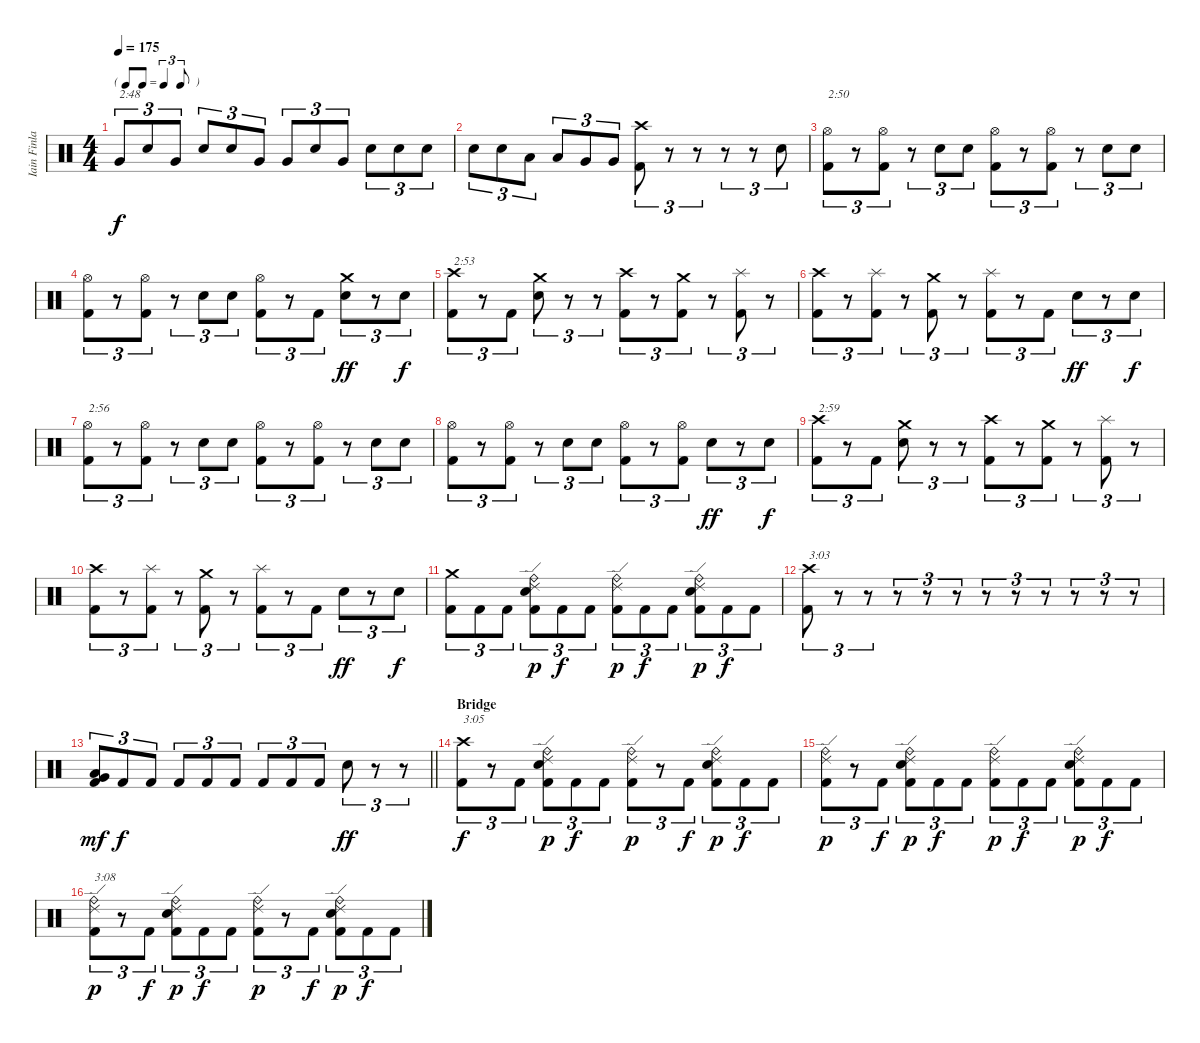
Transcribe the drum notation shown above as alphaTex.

\track ("Iain Finlay" "Iain Finla") {instrument percussion}
\staff {score}
\articulation defaults
\ts (4 4)
\tf triplet8th
\tempo 175
\clef neutral
\ks c "Very Low Tom (hit)".8{tu (3 2) txt "2:48" dy f} "Electric Snare (hit)".8{tu (3 2)} "Very Low Tom (hit)".8{tu (3 2)} "Electric Snare (hit)".8{tu (3 2)} "Electric Snare (hit)".8{tu (3 2)} "Very Low Tom (hit)".8{tu (3 2)} "Very Low Tom (hit)".8{tu (3 2)} "Electric Snare (hit)".8{tu (3 2)} "Very Low Tom (hit)".8{tu (3 2)} "Electric Snare (hit)".8{tu (3 2)} "Electric Snare (hit)".8{tu (3 2)} "Electric Snare (hit)".8{tu (3 2)}
|
"Electric Snare (hit)".8{tu (3 2)} "Electric Snare (hit)".8{tu (3 2)} "Low Tom (hit)".8{tu (3 2)} "Low Tom (hit)".8{tu (3 2)} "Very Low Tom (hit)".8{tu (3 2)} "Very Low Tom (hit)".8{tu (3 2)} ("Crash high (hit)" "Kick (hit) 2").8{tu (3 2)} r.8{tu (3 2)} r.8{tu (3 2)} r.8{tu (3 2)} r.8{tu (3 2)} "Electric Snare (hit)".8{tu (3 2)} |
("Hi-Hat (open)" "Kick (hit) 2").8{tu (3 2) txt "2:50"} r.8{tu (3 2)} ("Hi-Hat (open)" "Kick (hit) 2").8{tu (3 2)} r.8{tu (3 2)} "Electric Snare (hit)".8{tu (3 2)} "Electric Snare (hit)".8{tu (3 2)} ("Hi-Hat (open)" "Kick (hit) 2").8{tu (3 2)} r.8{tu (3 2)} ("Hi-Hat (open)" "Kick (hit) 2").8{tu (3 2)} r.8{tu (3 2)} "Electric Snare (hit)".8{tu (3 2)} "Electric Snare (hit)".8{tu (3 2)} |
("Hi-Hat (open)" "Kick (hit) 2").8{tu (3 2)} r.8{tu (3 2)} ("Hi-Hat (open)" "Kick (hit) 2").8{tu (3 2)} r.8{tu (3 2)} "Electric Snare (hit)".8{tu (3 2)} "Electric Snare (hit)".8{tu (3 2)} ("Hi-Hat (open)" "Kick (hit) 2").8{tu (3 2)} r.8{tu (3 2)} "Kick (hit) 2".8{tu (3 2)} ("Crash medium (hit)" "Electric Snare (hit)").8{tu (3 2) dy ff} r.8{tu (3 2)} "Electric Snare (hit)".8{tu (3 2) dy f} |
("Crash high (hit)" "Kick (hit) 2").8{tu (3 2) txt "2:53"} r.8{tu (3 2)} "Kick (hit) 2".8{tu (3 2)} ("Crash medium (hit)" "Electric Snare (hit)").8{tu (3 2)} r.8{tu (3 2)} r.8{tu (3 2)} ("Crash high (hit)" "Kick (hit) 2").8{tu (3 2)} r.8{tu (3 2)} ("Crash medium (hit)" "Kick (hit) 2").8{tu (3 2)} r.8{tu (3 2)} ("Splash (hit)" "Kick (hit) 2").8{tu (3 2)} r.8{tu (3 2)} |
("Crash high (hit)" "Kick (hit) 2").8{tu (3 2)} r.8{tu (3 2)} ("Splash (hit)" "Kick (hit) 2").8{tu (3 2)} r.8{tu (3 2)} ("Crash medium (hit)" "Kick (hit) 2").8{tu (3 2)} r.8{tu (3 2)} ("Splash (hit)" "Kick (hit) 2").8{tu (3 2)} r.8{tu (3 2)} "Kick (hit) 2".8{tu (3 2)} "Electric Snare (hit)".8{tu (3 2) dy ff} r.8{tu (3 2)} "Electric Snare (hit)".8{tu (3 2) dy f} |
("Hi-Hat (open)" "Kick (hit) 2").8{tu (3 2) txt "2:56"} r.8{tu (3 2)} ("Hi-Hat (open)" "Kick (hit) 2").8{tu (3 2)} r.8{tu (3 2)} "Electric Snare (hit)".8{tu (3 2)} "Electric Snare (hit)".8{tu (3 2)} ("Hi-Hat (open)" "Kick (hit) 2").8{tu (3 2)} r.8{tu (3 2)} ("Hi-Hat (open)" "Kick (hit) 2").8{tu (3 2)} r.8{tu (3 2)} "Electric Snare (hit)".8{tu (3 2)} "Electric Snare (hit)".8{tu (3 2)} |
("Hi-Hat (open)" "Kick (hit) 2").8{tu (3 2)} r.8{tu (3 2)} ("Hi-Hat (open)" "Kick (hit) 2").8{tu (3 2)} r.8{tu (3 2)} "Electric Snare (hit)".8{tu (3 2)} "Electric Snare (hit)".8{tu (3 2)} ("Hi-Hat (open)" "Kick (hit) 2").8{tu (3 2)} r.8{tu (3 2)} ("Hi-Hat (open)" "Kick (hit) 2").8{tu (3 2)} "Electric Snare (hit)".8{tu (3 2) dy ff} r.8{tu (3 2)} "Electric Snare (hit)".8{tu (3 2) dy f} |
("Crash high (hit)" "Kick (hit) 2").8{tu (3 2) txt "2:59"} r.8{tu (3 2)} "Kick (hit) 2".8{tu (3 2)} ("Crash medium (hit)" "Electric Snare (hit)").8{tu (3 2)} r.8{tu (3 2)} r.8{tu (3 2)} ("Crash high (hit)" "Kick (hit) 2").8{tu (3 2)} r.8{tu (3 2)} ("Crash medium (hit)" "Kick (hit) 2").8{tu (3 2)} r.8{tu (3 2)} ("Splash (hit)" "Kick (hit) 2").8{tu (3 2)} r.8{tu (3 2)} |
("Crash high (hit)" "Kick (hit) 2").8{tu (3 2)} r.8{tu (3 2)} ("Splash (hit)" "Kick (hit) 2").8{tu (3 2)} r.8{tu (3 2)} ("Crash medium (hit)" "Kick (hit) 2").8{tu (3 2)} r.8{tu (3 2)} ("Splash (hit)" "Kick (hit) 2").8{tu (3 2)} r.8{tu (3 2)} "Kick (hit) 2".8{tu (3 2)} "Electric Snare (hit)".8{tu (3 2) dy ff} r.8{tu (3 2)} "Electric Snare (hit)".8{tu (3 2) dy f} |
("Crash medium (hit)" "Kick (hit) 2").8{tu (3 2)} "Kick (hit) 2".8{tu (3 2)} "Kick (hit) 2".8{tu (3 2)} ("Ride (edge) 2" "Ride (bell)" "Electric Snare (hit)" "Kick (hit) 2").8{tu (3 2) dy p} "Kick (hit) 2".8{tu (3 2) dy f} "Kick (hit) 2".8{tu (3 2)} ("Ride (edge) 2" "Ride (bell)" "Kick (hit) 2").8{tu (3 2) dy p} "Kick (hit) 2".8{tu (3 2) dy f} "Kick (hit) 2".8{tu (3 2)} ("Ride (edge) 2" "Ride (bell)" "Electric Snare (hit)" "Kick (hit) 2").8{tu (3 2) dy p} "Kick (hit) 2".8{tu (3 2) dy f} "Kick (hit) 2".8{tu (3 2)} |
("Crash high (hit)" "Kick (hit) 2").8{tu (3 2) txt "3:03"} r.8{tu (3 2)} r.8{tu (3 2)} r.8{tu (3 2)} r.8{tu (3 2)} r.8{tu (3 2)} r.8{tu (3 2)} r.8{tu (3 2)} r.8{tu (3 2)} r.8{tu (3 2)} r.8{tu (3 2)} r.8{tu (3 2)} |
\barLineRight lightlight
("Very Low Tom (hit)" "Low Floor Tom (hit)" "Kick (hit) 2").8{tu (3 2) dy mf} "Kick (hit) 2".8{tu (3 2) dy f} "Kick (hit) 2".8{tu (3 2)} "Kick (hit) 2".8{tu (3 2)} "Kick (hit) 2".8{tu (3 2)} "Kick (hit) 2".8{tu (3 2)} "Kick (hit) 2".8{tu (3 2)} "Kick (hit) 2".8{tu (3 2)} "Kick (hit) 2".8{tu (3 2)} "Electric Snare (hit)".8{tu (3 2) dy ff} r.8{tu (3 2)} r.8{tu (3 2)} |
\section ("" "Bridge")
("Crash high (hit)" "Kick (hit) 2").8{tu (3 2) txt "3:05" dy f} r.8{tu (3 2)} "Kick (hit) 2".8{tu (3 2)} ("Ride (edge) 2" "Ride (bell)" "Electric Snare (hit)" "Kick (hit) 2").8{tu (3 2) dy p} "Kick (hit) 2".8{tu (3 2) dy f} "Kick (hit) 2".8{tu (3 2)} ("Ride (edge) 2" "Ride (bell)" "Kick (hit) 2").8{tu (3 2) dy p} r.8{tu (3 2)} "Kick (hit) 2".8{tu (3 2) dy f} ("Ride (edge) 2" "Ride (bell)" "Electric Snare (hit)" "Kick (hit) 2").8{tu (3 2) dy p} "Kick (hit) 2".8{tu (3 2) dy f} "Kick (hit) 2".8{tu (3 2)} |
("Ride (edge) 2" "Ride (bell)" "Kick (hit) 2").8{tu (3 2) dy p} r.8{tu (3 2)} "Kick (hit) 2".8{tu (3 2) dy f} ("Ride (edge) 2" "Ride (bell)" "Electric Snare (hit)" "Kick (hit) 2").8{tu (3 2) dy p} "Kick (hit) 2".8{tu (3 2) dy f} "Kick (hit) 2".8{tu (3 2)} ("Ride (edge) 2" "Ride (bell)" "Kick (hit) 2").8{tu (3 2) dy p} "Kick (hit) 2".8{tu (3 2) dy f} "Kick (hit) 2".8{tu (3 2)} ("Ride (edge) 2" "Ride (bell)" "Electric Snare (hit)" "Kick (hit) 2").8{tu (3 2) dy p} "Kick (hit) 2".8{tu (3 2) dy f} "Kick (hit) 2".8{tu (3 2)} |
("Ride (edge) 2" "Ride (bell)" "Kick (hit) 2").8{tu (3 2) txt "3:08" dy p} r.8{tu (3 2)} "Kick (hit) 2".8{tu (3 2) dy f} ("Ride (edge) 2" "Ride (bell)" "Electric Snare (hit)" "Kick (hit) 2").8{tu (3 2) dy p} "Kick (hit) 2".8{tu (3 2) dy f} "Kick (hit) 2".8{tu (3 2)} ("Ride (edge) 2" "Ride (bell)" "Kick (hit) 2").8{tu (3 2) dy p} r.8{tu (3 2)} "Kick (hit) 2".8{tu (3 2) dy f} ("Ride (edge) 2" "Ride (bell)" "Electric Snare (hit)" "Kick (hit) 2").8{tu (3 2) dy p} "Kick (hit) 2".8{tu (3 2) dy f} "Kick (hit) 2".8{tu (3 2)}
